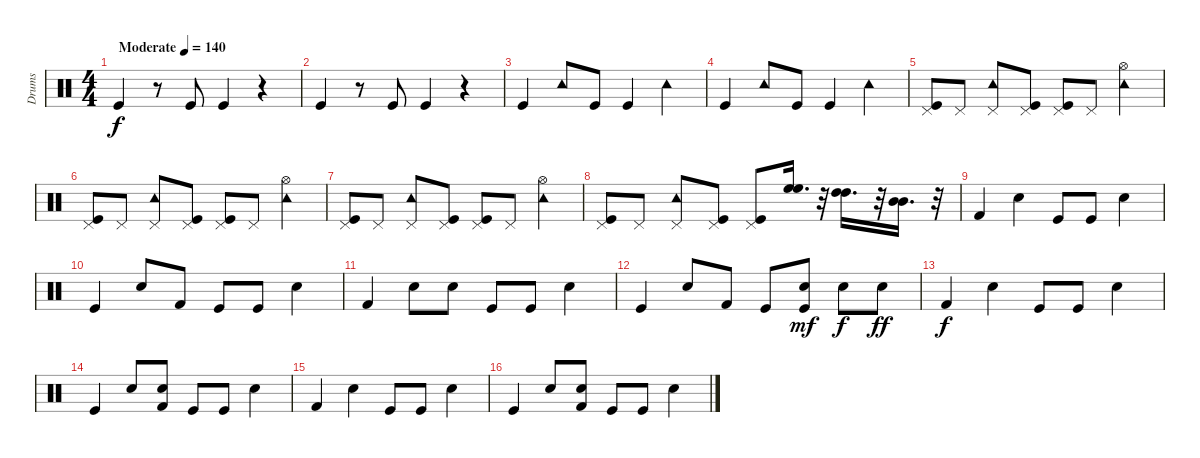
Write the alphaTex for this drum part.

\track ("Drums" "Drums") {instrument percussion}
\staff {score}
\articulation defaults
\ts (4 4)
\tempo (140 "Moderate")
\clef neutral
\ks c "Kick (hit)".4{dy f}
r.8 "Kick (hit)".8 "Kick (hit)".4 r.4 |
"Kick (hit)".4 r.8 "Kick (hit)".8 "Kick (hit)".4 r.4 |
"Kick (hit)".4 "Tambourine (hit)".8 "Kick (hit)".8 "Kick (hit)".4 "Tambourine (hit)".4 |
"Kick (hit)".4 "Tambourine (hit)".8 "Kick (hit)".8 "Kick (hit)".4 "Tambourine (hit)".4 |
("Pedal Hi-Hat (hit)" "Kick (hit)").8 "Pedal Hi-Hat (hit)".8 ("Pedal Hi-Hat (hit)" "Tambourine (hit)").8 ("Pedal Hi-Hat (hit)" "Kick (hit)").8 ("Pedal Hi-Hat (hit)" "Kick (hit)").8 "Pedal Hi-Hat (hit)".8 ("Hi-Hat (open)" "Tambourine (hit)").4 |
("Pedal Hi-Hat (hit)" "Kick (hit)").8 "Pedal Hi-Hat (hit)".8 ("Pedal Hi-Hat (hit)" "Tambourine (hit)").8 ("Pedal Hi-Hat (hit)" "Kick (hit)").8 ("Pedal Hi-Hat (hit)" "Kick (hit)").8 "Pedal Hi-Hat (hit)".8 ("Hi-Hat (open)" "Tambourine (hit)").4 |
("Pedal Hi-Hat (hit)" "Kick (hit)").8 "Pedal Hi-Hat (hit)".8 ("Pedal Hi-Hat (hit)" "Tambourine (hit)").8 ("Pedal Hi-Hat (hit)" "Kick (hit)").8 ("Pedal Hi-Hat (hit)" "Kick (hit)").8 "Pedal Hi-Hat (hit)".8 ("Hi-Hat (open)" "Tambourine (hit)").4 |
("Pedal Hi-Hat (hit)" "Kick (hit)").8 "Pedal Hi-Hat (hit)".8 ("Pedal Hi-Hat (hit)" "Tambourine (hit)").8 ("Pedal Hi-Hat (hit)" "Kick (hit)").8 ("Pedal Hi-Hat (hit)" "Kick (hit)").8 ("High Floor Tom (hit)" "High Floor Tom (hit)").16{d} r.32 ("High Tom (hit)" "High Tom (hit)").16{d} r.32 ("Mid Tom (hit)" "Mid Tom (hit)").16{d} r.32 |
"Kick (hit) 2".4 "Electric Snare (hit)".4 "Kick (hit)".8 "Kick (hit)".8 "Electric Snare (hit)".4 |
"Kick (hit)".4 "Electric Snare (hit)".8 "Kick (hit) 2".8 "Kick (hit)".8 "Kick (hit)".8 "Electric Snare (hit)".4 |
"Kick (hit) 2".4 "Electric Snare (hit)".8 "Electric Snare (hit)".8 "Kick (hit)".8 "Kick (hit)".8 "Electric Snare (hit)".4 |
"Kick (hit)".4 "Electric Snare (hit)".8 "Kick (hit) 2".8 "Kick (hit)".8 ("Electric Snare (hit)" "Kick (hit)").8{dy mf} "Electric Snare (hit)".8{dy f} "Electric Snare (hit)".8{dy ff} |
"Kick (hit) 2".4{dy f} "Electric Snare (hit)".4 "Kick (hit)".8 "Kick (hit)".8 "Electric Snare (hit)".4 |
"Kick (hit)".4 "Electric Snare (hit)".8 ("Electric Snare (hit)" "Kick (hit) 2").8 "Kick (hit)".8 "Kick (hit)".8 "Electric Snare (hit)".4 |
"Kick (hit) 2".4 "Electric Snare (hit)".4 "Kick (hit)".8 "Kick (hit)".8 "Electric Snare (hit)".4 |
"Kick (hit)".4 "Electric Snare (hit)".8 ("Electric Snare (hit)" "Kick (hit) 2").8 "Kick (hit)".8 "Kick (hit)".8 "Electric Snare (hit)".4
